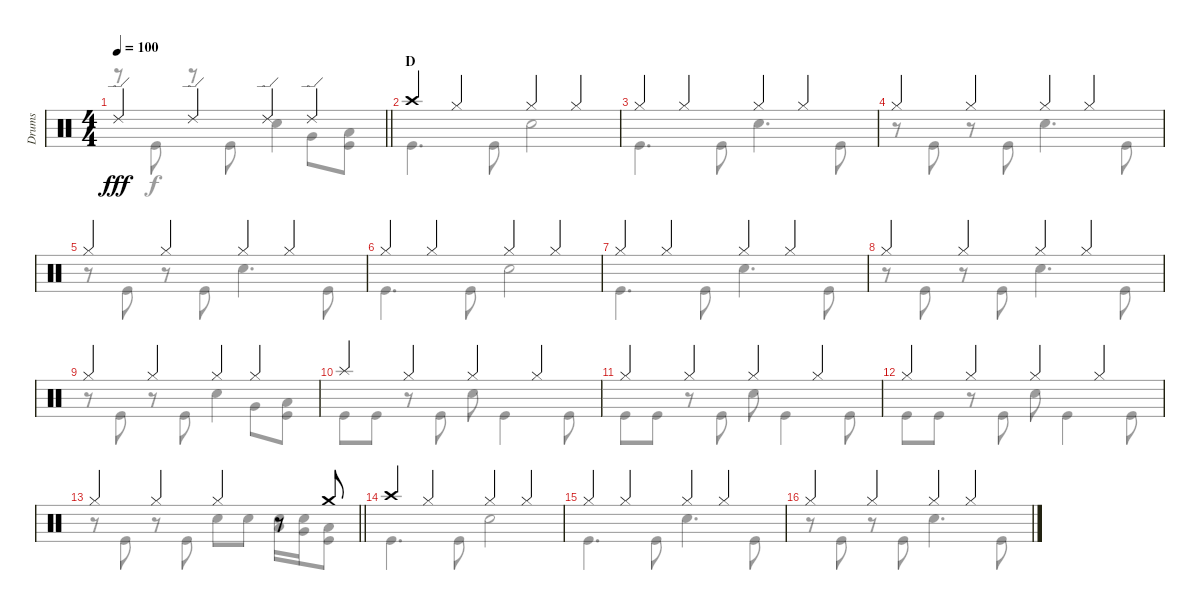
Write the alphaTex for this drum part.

\track ("Drums" "Drums") {instrument percussion}
\staff {score}
\articulation defaults
\voice
\ts (4 4)
\tempo 100
\clef neutral
\barLineRight lightlight
\ks c "Ride (edge) 2".4{dy fff} "Ride (edge) 2".4 "Ride (edge) 2".4 "Ride (edge) 2".4
|
\section ("" "D")
"Crash high (hit)".4 "Hi-Hat (closed)".4 "Hi-Hat (closed)".4 "Hi-Hat (closed)".4 |
"Hi-Hat (closed)".4 "Hi-Hat (closed)".4 "Hi-Hat (closed)".4 "Hi-Hat (closed)".4 |
"Hi-Hat (closed)".4 "Hi-Hat (closed)".4 "Hi-Hat (closed)".4 "Hi-Hat (closed)".4 |
"Hi-Hat (closed)".4 "Hi-Hat (closed)".4 "Hi-Hat (closed)".4 "Hi-Hat (closed)".4 |
"Hi-Hat (closed)".4 "Hi-Hat (closed)".4 "Hi-Hat (closed)".4 "Hi-Hat (closed)".4 |
"Hi-Hat (closed)".4 "Hi-Hat (closed)".4 "Hi-Hat (closed)".4 "Hi-Hat (closed)".4 |
"Hi-Hat (closed)".4 "Hi-Hat (closed)".4 "Hi-Hat (closed)".4 "Hi-Hat (closed)".4 |
"Hi-Hat (closed)".4 "Hi-Hat (closed)".4 "Hi-Hat (closed)".4 "Hi-Hat (closed)".4 |
"Splash (hit)".4 "Hi-Hat (closed)".4 "Hi-Hat (closed)".4 "Hi-Hat (closed)".4 |
"Hi-Hat (closed)".4 "Hi-Hat (closed)".4 "Hi-Hat (closed)".4 "Hi-Hat (closed)".4 |
"Hi-Hat (closed)".4 "Hi-Hat (closed)".4 "Hi-Hat (closed)".4 "Hi-Hat (closed)".4 |
\barLineRight lightlight "Hi-Hat (closed)".4 "Hi-Hat (closed)".4 "Hi-Hat (closed)".4
r.8 "Crash medium (hit)".8 |
"Crash high (hit)".4 "Hi-Hat (closed)".4 "Hi-Hat (closed)".4 "Hi-Hat (closed)".4 |
"Hi-Hat (closed)".4 "Hi-Hat (closed)".4 "Hi-Hat (closed)".4 "Hi-Hat (closed)".4 |
"Hi-Hat (closed)".4 "Hi-Hat (closed)".4 "Hi-Hat (closed)".4 "Hi-Hat (closed)".4
\voice
\clef neutral
\ottava regular
\simile none
\barLineRight lightlight
\ks c
r.8{dy f} "Kick (hit)".8 r.8 "Kick (hit)".8 "Snare (hit) 2".4 "Very Low Tom (hit)".8 ("Low Floor Tom (hit)" "Kick (hit)").8 |
"Kick (hit)".4{d} "Kick (hit)".8 "Snare (hit) 2".2 |
"Kick (hit)".4{d} "Kick (hit)".8 "Snare (hit) 2".4{d} "Kick (hit)".8 |
r.8 "Kick (hit)".8 r.8 "Kick (hit)".8 "Snare (hit) 2".4{d} "Kick (hit)".8 |
r.8 "Kick (hit)".8 r.8 "Kick (hit)".8 "Snare (hit) 2".4{d} "Kick (hit)".8 |
"Kick (hit)".4{d} "Kick (hit)".8 "Snare (hit) 2".2 |
"Kick (hit)".4{d} "Kick (hit)".8 "Snare (hit) 2".4{d} "Kick (hit)".8 |
r.8 "Kick (hit)".8 r.8 "Kick (hit)".8 "Snare (hit) 2".4{d} "Kick (hit)".8 |
r.8 "Kick (hit)".8 r.8 "Kick (hit)".8 "Snare (hit) 2".4 "Very Low Tom (hit)".8 ("Low Floor Tom (hit)" "Kick (hit)").8 |
"Kick (hit)".8 "Kick (hit)".8 r.8 "Kick (hit)".8 "Snare (hit) 2".8 "Kick (hit)".4 "Kick (hit)".8 |
"Kick (hit)".8 "Kick (hit)".8 r.8 "Kick (hit)".8 "Snare (hit) 2".8 "Kick (hit)".4 "Kick (hit)".8 |
"Kick (hit)".8 "Kick (hit)".8 r.8 "Kick (hit)".8 "Snare (hit) 2".8 "Kick (hit)".4 "Kick (hit)".8 |
\barLineRight lightlight
r.8 "Kick (hit)".8 r.8 "Kick (hit)".8 "Snare (hit) 2".8 "Snare (hit) 2".8 ("Snare (hit) 2" "Low Tom (hit)").16 ("Snare (hit) 2" "Very Low Tom (hit)").16 ("Low Floor Tom (hit)" "Kick (hit)").8 |
"Kick (hit)".4{d} "Kick (hit)".8 "Snare (hit) 2".2 |
"Kick (hit)".4{d} "Kick (hit)".8 "Snare (hit) 2".4{d} "Kick (hit)".8 |
r.8 "Kick (hit)".8 r.8 "Kick (hit)".8 "Snare (hit) 2".4{d} "Kick (hit)".8
